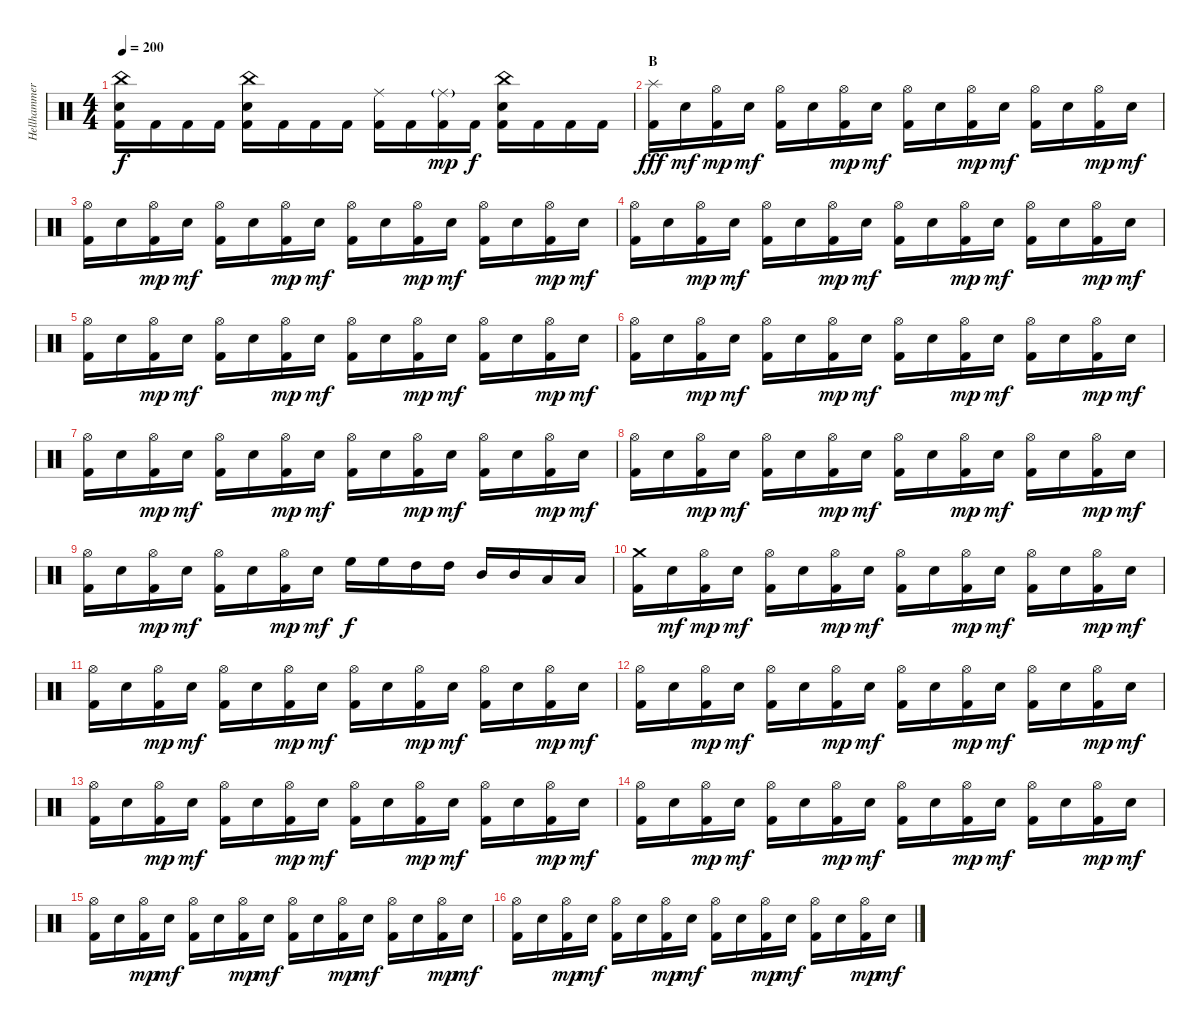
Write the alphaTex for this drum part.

\track ("Hellhammer" "Hellhammer") {instrument percussion}
\staff {score}
\articulation defaults
\ts (4 4)
\tempo 200
\clef neutral
\ks c
("Kick (hit) 2" "Electric Snare (hit)" "China (hit)").16{dy f} "Kick (hit) 2".16 "Kick (hit) 2".16 "Kick (hit) 2".16 ("Kick (hit) 2" "Electric Snare (hit)" "China (hit)").16 "Kick (hit) 2".16 "Kick (hit) 2".16 "Kick (hit) 2".16 ("Kick (hit) 2" "Ride (middle)").16 "Kick (hit) 2".16 ("Kick (hit) 2" "Ride (middle)"{g}).16{dy mp} "Kick (hit) 2".16{dy f} ("Kick (hit) 2" "Electric Snare (hit)" "China (hit)").16 "Kick (hit) 2".16 "Kick (hit) 2".16 "Kick (hit) 2".16 |
\section ("" "B")
("Kick (hit) 2" "Splash (hit)").16{dy fff} "Electric Snare (hit)".16{dy mf} ("Kick (hit) 2" "Hi-Hat (open)").16{dy mp} "Electric Snare (hit)".16{dy mf} ("Kick (hit) 2" "Hi-Hat (open)").16 "Electric Snare (hit)".16 ("Kick (hit) 2" "Hi-Hat (open)").16{dy mp} "Electric Snare (hit)".16{dy mf} ("Kick (hit) 2" "Hi-Hat (open)").16 "Electric Snare (hit)".16 ("Kick (hit) 2" "Hi-Hat (open)").16{dy mp} "Electric Snare (hit)".16{dy mf} ("Kick (hit) 2" "Hi-Hat (open)").16 "Electric Snare (hit)".16 ("Kick (hit) 2" "Hi-Hat (open)").16{dy mp} "Electric Snare (hit)".16{dy mf} |
("Kick (hit) 2" "Hi-Hat (open)").16 "Electric Snare (hit)".16 ("Kick (hit) 2" "Hi-Hat (open)").16{dy mp} "Electric Snare (hit)".16{dy mf} ("Kick (hit) 2" "Hi-Hat (open)").16 "Electric Snare (hit)".16 ("Kick (hit) 2" "Hi-Hat (open)").16{dy mp} "Electric Snare (hit)".16{dy mf} ("Kick (hit) 2" "Hi-Hat (open)").16 "Electric Snare (hit)".16 ("Kick (hit) 2" "Hi-Hat (open)").16{dy mp} "Electric Snare (hit)".16{dy mf} ("Kick (hit) 2" "Hi-Hat (open)").16 "Electric Snare (hit)".16 ("Kick (hit) 2" "Hi-Hat (open)").16{dy mp} "Electric Snare (hit)".16{dy mf} |
("Kick (hit) 2" "Hi-Hat (open)").16 "Electric Snare (hit)".16 ("Kick (hit) 2" "Hi-Hat (open)").16{dy mp} "Electric Snare (hit)".16{dy mf} ("Kick (hit) 2" "Hi-Hat (open)").16 "Electric Snare (hit)".16 ("Kick (hit) 2" "Hi-Hat (open)").16{dy mp} "Electric Snare (hit)".16{dy mf} ("Kick (hit) 2" "Hi-Hat (open)").16 "Electric Snare (hit)".16 ("Kick (hit) 2" "Hi-Hat (open)").16{dy mp} "Electric Snare (hit)".16{dy mf} ("Kick (hit) 2" "Hi-Hat (open)").16 "Electric Snare (hit)".16 ("Kick (hit) 2" "Hi-Hat (open)").16{dy mp} "Electric Snare (hit)".16{dy mf} |
("Kick (hit) 2" "Hi-Hat (open)").16 "Electric Snare (hit)".16 ("Kick (hit) 2" "Hi-Hat (open)").16{dy mp} "Electric Snare (hit)".16{dy mf} ("Kick (hit) 2" "Hi-Hat (open)").16 "Electric Snare (hit)".16 ("Kick (hit) 2" "Hi-Hat (open)").16{dy mp} "Electric Snare (hit)".16{dy mf} ("Kick (hit) 2" "Hi-Hat (open)").16 "Electric Snare (hit)".16 ("Kick (hit) 2" "Hi-Hat (open)").16{dy mp} "Electric Snare (hit)".16{dy mf} ("Kick (hit) 2" "Hi-Hat (open)").16 "Electric Snare (hit)".16 ("Kick (hit) 2" "Hi-Hat (open)").16{dy mp} "Electric Snare (hit)".16{dy mf} |
("Kick (hit) 2" "Hi-Hat (open)").16 "Electric Snare (hit)".16 ("Kick (hit) 2" "Hi-Hat (open)").16{dy mp} "Electric Snare (hit)".16{dy mf} ("Kick (hit) 2" "Hi-Hat (open)").16 "Electric Snare (hit)".16 ("Kick (hit) 2" "Hi-Hat (open)").16{dy mp} "Electric Snare (hit)".16{dy mf} ("Kick (hit) 2" "Hi-Hat (open)").16 "Electric Snare (hit)".16 ("Kick (hit) 2" "Hi-Hat (open)").16{dy mp} "Electric Snare (hit)".16{dy mf} ("Kick (hit) 2" "Hi-Hat (open)").16 "Electric Snare (hit)".16 ("Kick (hit) 2" "Hi-Hat (open)").16{dy mp} "Electric Snare (hit)".16{dy mf} |
("Kick (hit) 2" "Hi-Hat (open)").16 "Electric Snare (hit)".16 ("Kick (hit) 2" "Hi-Hat (open)").16{dy mp} "Electric Snare (hit)".16{dy mf} ("Kick (hit) 2" "Hi-Hat (open)").16 "Electric Snare (hit)".16 ("Kick (hit) 2" "Hi-Hat (open)").16{dy mp} "Electric Snare (hit)".16{dy mf} ("Kick (hit) 2" "Hi-Hat (open)").16 "Electric Snare (hit)".16 ("Kick (hit) 2" "Hi-Hat (open)").16{dy mp} "Electric Snare (hit)".16{dy mf} ("Kick (hit) 2" "Hi-Hat (open)").16 "Electric Snare (hit)".16 ("Kick (hit) 2" "Hi-Hat (open)").16{dy mp} "Electric Snare (hit)".16{dy mf} |
("Kick (hit) 2" "Hi-Hat (open)").16 "Electric Snare (hit)".16 ("Kick (hit) 2" "Hi-Hat (open)").16{dy mp} "Electric Snare (hit)".16{dy mf} ("Kick (hit) 2" "Hi-Hat (open)").16 "Electric Snare (hit)".16 ("Kick (hit) 2" "Hi-Hat (open)").16{dy mp} "Electric Snare (hit)".16{dy mf} ("Kick (hit) 2" "Hi-Hat (open)").16 "Electric Snare (hit)".16 ("Kick (hit) 2" "Hi-Hat (open)").16{dy mp} "Electric Snare (hit)".16{dy mf} ("Kick (hit) 2" "Hi-Hat (open)").16 "Electric Snare (hit)".16 ("Kick (hit) 2" "Hi-Hat (open)").16{dy mp} "Electric Snare (hit)".16{dy mf} |
("Kick (hit) 2" "Hi-Hat (open)").16 "Electric Snare (hit)".16 ("Kick (hit) 2" "Hi-Hat (open)").16{dy mp} "Electric Snare (hit)".16{dy mf} ("Kick (hit) 2" "Hi-Hat (open)").16 "Electric Snare (hit)".16 ("Kick (hit) 2" "Hi-Hat (open)").16{dy mp} "Electric Snare (hit)".16{dy mf} "High Floor Tom (hit)".16{dy f} "High Floor Tom (hit)".16 "High Tom (hit)".16 "High Tom (hit)".16 "Mid Tom (hit)".16 "Mid Tom (hit)".16 "Low Tom (hit)".16 "Low Tom (hit)".16 |
("Kick (hit) 2" "Crash medium (hit)").16 "Electric Snare (hit)".16{dy mf} ("Kick (hit) 2" "Hi-Hat (open)").16{dy mp} "Electric Snare (hit)".16{dy mf} ("Kick (hit) 2" "Hi-Hat (open)").16 "Electric Snare (hit)".16 ("Kick (hit) 2" "Hi-Hat (open)").16{dy mp} "Electric Snare (hit)".16{dy mf} ("Kick (hit) 2" "Hi-Hat (open)").16 "Electric Snare (hit)".16 ("Kick (hit) 2" "Hi-Hat (open)").16{dy mp} "Electric Snare (hit)".16{dy mf} ("Kick (hit) 2" "Hi-Hat (open)").16 "Electric Snare (hit)".16 ("Kick (hit) 2" "Hi-Hat (open)").16{dy mp} "Electric Snare (hit)".16{dy mf} |
("Kick (hit) 2" "Hi-Hat (open)").16 "Electric Snare (hit)".16 ("Kick (hit) 2" "Hi-Hat (open)").16{dy mp} "Electric Snare (hit)".16{dy mf} ("Kick (hit) 2" "Hi-Hat (open)").16 "Electric Snare (hit)".16 ("Kick (hit) 2" "Hi-Hat (open)").16{dy mp} "Electric Snare (hit)".16{dy mf} ("Kick (hit) 2" "Hi-Hat (open)").16 "Electric Snare (hit)".16 ("Kick (hit) 2" "Hi-Hat (open)").16{dy mp} "Electric Snare (hit)".16{dy mf} ("Kick (hit) 2" "Hi-Hat (open)").16 "Electric Snare (hit)".16 ("Kick (hit) 2" "Hi-Hat (open)").16{dy mp} "Electric Snare (hit)".16{dy mf} |
("Kick (hit) 2" "Hi-Hat (open)").16 "Electric Snare (hit)".16 ("Kick (hit) 2" "Hi-Hat (open)").16{dy mp} "Electric Snare (hit)".16{dy mf} ("Kick (hit) 2" "Hi-Hat (open)").16 "Electric Snare (hit)".16 ("Kick (hit) 2" "Hi-Hat (open)").16{dy mp} "Electric Snare (hit)".16{dy mf} ("Kick (hit) 2" "Hi-Hat (open)").16 "Electric Snare (hit)".16 ("Kick (hit) 2" "Hi-Hat (open)").16{dy mp} "Electric Snare (hit)".16{dy mf} ("Kick (hit) 2" "Hi-Hat (open)").16 "Electric Snare (hit)".16 ("Kick (hit) 2" "Hi-Hat (open)").16{dy mp} "Electric Snare (hit)".16{dy mf} |
("Kick (hit) 2" "Hi-Hat (open)").16 "Electric Snare (hit)".16 ("Kick (hit) 2" "Hi-Hat (open)").16{dy mp} "Electric Snare (hit)".16{dy mf} ("Kick (hit) 2" "Hi-Hat (open)").16 "Electric Snare (hit)".16 ("Kick (hit) 2" "Hi-Hat (open)").16{dy mp} "Electric Snare (hit)".16{dy mf} ("Kick (hit) 2" "Hi-Hat (open)").16 "Electric Snare (hit)".16 ("Kick (hit) 2" "Hi-Hat (open)").16{dy mp} "Electric Snare (hit)".16{dy mf} ("Kick (hit) 2" "Hi-Hat (open)").16 "Electric Snare (hit)".16 ("Kick (hit) 2" "Hi-Hat (open)").16{dy mp} "Electric Snare (hit)".16{dy mf} |
("Kick (hit) 2" "Hi-Hat (open)").16 "Electric Snare (hit)".16 ("Kick (hit) 2" "Hi-Hat (open)").16{dy mp} "Electric Snare (hit)".16{dy mf} ("Kick (hit) 2" "Hi-Hat (open)").16 "Electric Snare (hit)".16 ("Kick (hit) 2" "Hi-Hat (open)").16{dy mp} "Electric Snare (hit)".16{dy mf} ("Kick (hit) 2" "Hi-Hat (open)").16 "Electric Snare (hit)".16 ("Kick (hit) 2" "Hi-Hat (open)").16{dy mp} "Electric Snare (hit)".16{dy mf} ("Kick (hit) 2" "Hi-Hat (open)").16 "Electric Snare (hit)".16 ("Kick (hit) 2" "Hi-Hat (open)").16{dy mp} "Electric Snare (hit)".16{dy mf} |
("Kick (hit) 2" "Hi-Hat (open)").16 "Electric Snare (hit)".16 ("Kick (hit) 2" "Hi-Hat (open)").16{dy mp} "Electric Snare (hit)".16{dy mf} ("Kick (hit) 2" "Hi-Hat (open)").16 "Electric Snare (hit)".16 ("Kick (hit) 2" "Hi-Hat (open)").16{dy mp} "Electric Snare (hit)".16{dy mf} ("Kick (hit) 2" "Hi-Hat (open)").16 "Electric Snare (hit)".16 ("Kick (hit) 2" "Hi-Hat (open)").16{dy mp} "Electric Snare (hit)".16{dy mf} ("Kick (hit) 2" "Hi-Hat (open)").16 "Electric Snare (hit)".16 ("Kick (hit) 2" "Hi-Hat (open)").16{dy mp} "Electric Snare (hit)".16{dy mf} |
("Kick (hit) 2" "Hi-Hat (open)").16 "Electric Snare (hit)".16 ("Kick (hit) 2" "Hi-Hat (open)").16{dy mp} "Electric Snare (hit)".16{dy mf} ("Kick (hit) 2" "Hi-Hat (open)").16 "Electric Snare (hit)".16 ("Kick (hit) 2" "Hi-Hat (open)").16{dy mp} "Electric Snare (hit)".16{dy mf} ("Kick (hit) 2" "Hi-Hat (open)").16 "Electric Snare (hit)".16 ("Kick (hit) 2" "Hi-Hat (open)").16{dy mp} "Electric Snare (hit)".16{dy mf} ("Kick (hit) 2" "Hi-Hat (open)").16 "Electric Snare (hit)".16 ("Kick (hit) 2" "Hi-Hat (open)").16{dy mp} "Electric Snare (hit)".16{dy mf}
